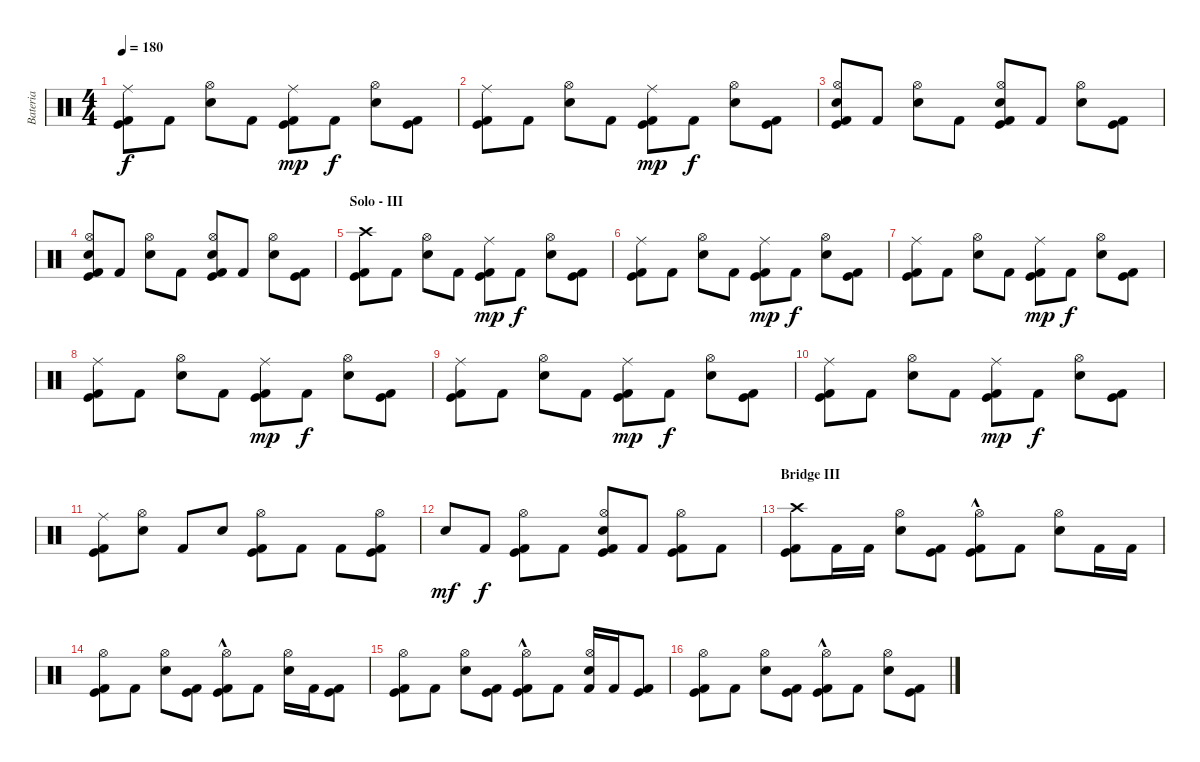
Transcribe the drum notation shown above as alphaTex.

\track ("Bateria" "Bateria") {instrument percussion}
\staff {score}
\articulation defaults
\ts (4 4)
\tempo 180
\clef neutral
\ks c
("Ride (middle)" "Kick (hit)" "Kick (hit) 2").8{dy f} "Kick (hit) 2".8 ("Hi-Hat (open)" "Snare (hit) 2").8 "Kick (hit) 2".8 ("Ride (middle)" "Kick (hit)" "Kick (hit) 2").8{dy mp} "Kick (hit) 2".8{dy f} ("Hi-Hat (open)" "Snare (hit) 2").8 ("Kick (hit)" "Kick (hit) 2").8 |
("Ride (middle)" "Kick (hit)" "Kick (hit) 2").8 "Kick (hit) 2".8 ("Hi-Hat (open)" "Snare (hit) 2").8 "Kick (hit) 2".8 ("Ride (middle)" "Kick (hit)" "Kick (hit) 2").8{dy mp} "Kick (hit) 2".8{dy f} ("Hi-Hat (open)" "Snare (hit) 2").8 ("Kick (hit)" "Kick (hit) 2").8 |
("Hi-Hat (open)" "Electric Snare (hit)" "Kick (hit)" "Kick (hit) 2").8 "Kick (hit) 2".8 ("Hi-Hat (open)" "Snare (hit) 2").8 "Kick (hit) 2".8 ("Hi-Hat (open)" "Electric Snare (hit)" "Kick (hit)" "Kick (hit) 2").8 "Kick (hit) 2".8 ("Hi-Hat (open)" "Snare (hit) 2").8 ("Kick (hit)" "Kick (hit) 2").8 |
("Hi-Hat (open)" "Electric Snare (hit)" "Kick (hit)" "Kick (hit) 2").8 "Kick (hit) 2".8 ("Hi-Hat (open)" "Snare (hit) 2").8 "Kick (hit) 2".8 ("Hi-Hat (open)" "Electric Snare (hit)" "Kick (hit)" "Kick (hit) 2").8 "Kick (hit) 2".8 ("Hi-Hat (open)" "Snare (hit) 2").8 ("Kick (hit)" "Kick (hit) 2").8 |
\section ("" "Solo - III")
("Crash high (hit)" "Kick (hit)" "Kick (hit) 2").8 "Kick (hit) 2".8 ("Hi-Hat (open)" "Snare (hit) 2").8 "Kick (hit) 2".8 ("Ride (middle)" "Kick (hit)" "Kick (hit) 2").8{dy mp} "Kick (hit) 2".8{dy f} ("Hi-Hat (open)" "Snare (hit) 2").8 ("Kick (hit)" "Kick (hit) 2").8 |
("Ride (middle)" "Kick (hit)" "Kick (hit) 2").8 "Kick (hit) 2".8 ("Hi-Hat (open)" "Snare (hit) 2").8 "Kick (hit) 2".8 ("Ride (middle)" "Kick (hit)" "Kick (hit) 2").8{dy mp} "Kick (hit) 2".8{dy f} ("Hi-Hat (open)" "Snare (hit) 2").8 ("Kick (hit)" "Kick (hit) 2").8 |
("Ride (middle)" "Kick (hit)" "Kick (hit) 2").8 "Kick (hit) 2".8 ("Hi-Hat (open)" "Snare (hit) 2").8 "Kick (hit) 2".8 ("Ride (middle)" "Kick (hit)" "Kick (hit) 2").8{dy mp} "Kick (hit) 2".8{dy f} ("Hi-Hat (open)" "Snare (hit) 2").8 ("Kick (hit)" "Kick (hit) 2").8 |
("Ride (middle)" "Kick (hit)" "Kick (hit) 2").8 "Kick (hit) 2".8 ("Hi-Hat (open)" "Snare (hit) 2").8 "Kick (hit) 2".8 ("Ride (middle)" "Kick (hit)" "Kick (hit) 2").8{dy mp} "Kick (hit) 2".8{dy f} ("Hi-Hat (open)" "Snare (hit) 2").8 ("Kick (hit)" "Kick (hit) 2").8 |
("Ride (middle)" "Kick (hit)" "Kick (hit) 2").8 "Kick (hit) 2".8 ("Hi-Hat (open)" "Snare (hit) 2").8 "Kick (hit) 2".8 ("Ride (middle)" "Kick (hit)" "Kick (hit) 2").8{dy mp} "Kick (hit) 2".8{dy f} ("Hi-Hat (open)" "Snare (hit) 2").8 ("Kick (hit)" "Kick (hit) 2").8 |
("Ride (middle)" "Kick (hit)" "Kick (hit) 2").8 "Kick (hit) 2".8 ("Hi-Hat (open)" "Snare (hit) 2").8 "Kick (hit) 2".8 ("Ride (middle)" "Kick (hit)" "Kick (hit) 2").8{dy mp} "Kick (hit) 2".8{dy f} ("Hi-Hat (open)" "Snare (hit) 2").8 ("Kick (hit)" "Kick (hit) 2").8 |
("Ride (middle)" "Kick (hit)" "Kick (hit) 2").8 ("Hi-Hat (open)" "Snare (hit) 2").8 "Kick (hit) 2".8 "Snare (hit) 2".8 ("Hi-Hat (open)" "Kick (hit)" "Kick (hit) 2").8 "Kick (hit) 2".8 "Kick (hit) 2".8 ("Hi-Hat (open)" "Kick (hit)" "Kick (hit) 2").8 |
"Snare (hit) 2".8{dy mf} "Kick (hit) 2".8{dy f} ("Hi-Hat (open)" "Kick (hit)" "Kick (hit) 2").8 "Kick (hit) 2".8 ("Hi-Hat (open)" "Snare (hit) 2" "Kick (hit)" "Kick (hit) 2").8 "Kick (hit) 2".8 ("Hi-Hat (open)" "Kick (hit)" "Kick (hit) 2").8 "Kick (hit) 2".8 |
\section ("" "Bridge III")
("Crash high (hit)" "Kick (hit)" "Kick (hit) 2").8 "Kick (hit) 2".16 "Kick (hit) 2".16 ("Hi-Hat (open)" "Snare (hit) 2").8 ("Kick (hit)" "Kick (hit) 2").8 ("Hi-Hat (open)"{hac} "Kick (hit)" "Kick (hit) 2").8 "Kick (hit) 2".8 ("Hi-Hat (open)" "Snare (hit) 2").8 "Kick (hit) 2".16 "Kick (hit) 2".16 |
("Hi-Hat (open)" "Kick (hit)" "Kick (hit) 2").8 "Kick (hit) 2".8 ("Hi-Hat (open)" "Snare (hit) 2").8 ("Kick (hit)" "Kick (hit) 2").8 ("Hi-Hat (open)"{hac} "Kick (hit)" "Kick (hit) 2").8 "Kick (hit) 2".8 ("Hi-Hat (open)" "Snare (hit) 2").16 "Kick (hit) 2".16 ("Kick (hit)" "Kick (hit) 2").8 |
("Hi-Hat (open)" "Kick (hit)" "Kick (hit) 2").8 "Kick (hit) 2".8 ("Hi-Hat (open)" "Snare (hit) 2").8 ("Kick (hit)" "Kick (hit) 2").8 ("Hi-Hat (open)"{hac} "Kick (hit)" "Kick (hit) 2").8 "Kick (hit) 2".8 ("Hi-Hat (open)" "Snare (hit) 2" "Kick (hit) 2").16 "Kick (hit) 2".16 ("Kick (hit)" "Kick (hit) 2").8 |
("Hi-Hat (open)" "Kick (hit)" "Kick (hit) 2").8 "Kick (hit) 2".8 ("Hi-Hat (open)" "Snare (hit) 2").8 ("Kick (hit)" "Kick (hit) 2").8 ("Hi-Hat (open)"{hac} "Kick (hit)" "Kick (hit) 2").8 "Kick (hit) 2".8 ("Hi-Hat (open)" "Snare (hit) 2").8 ("Kick (hit)" "Kick (hit) 2").8
